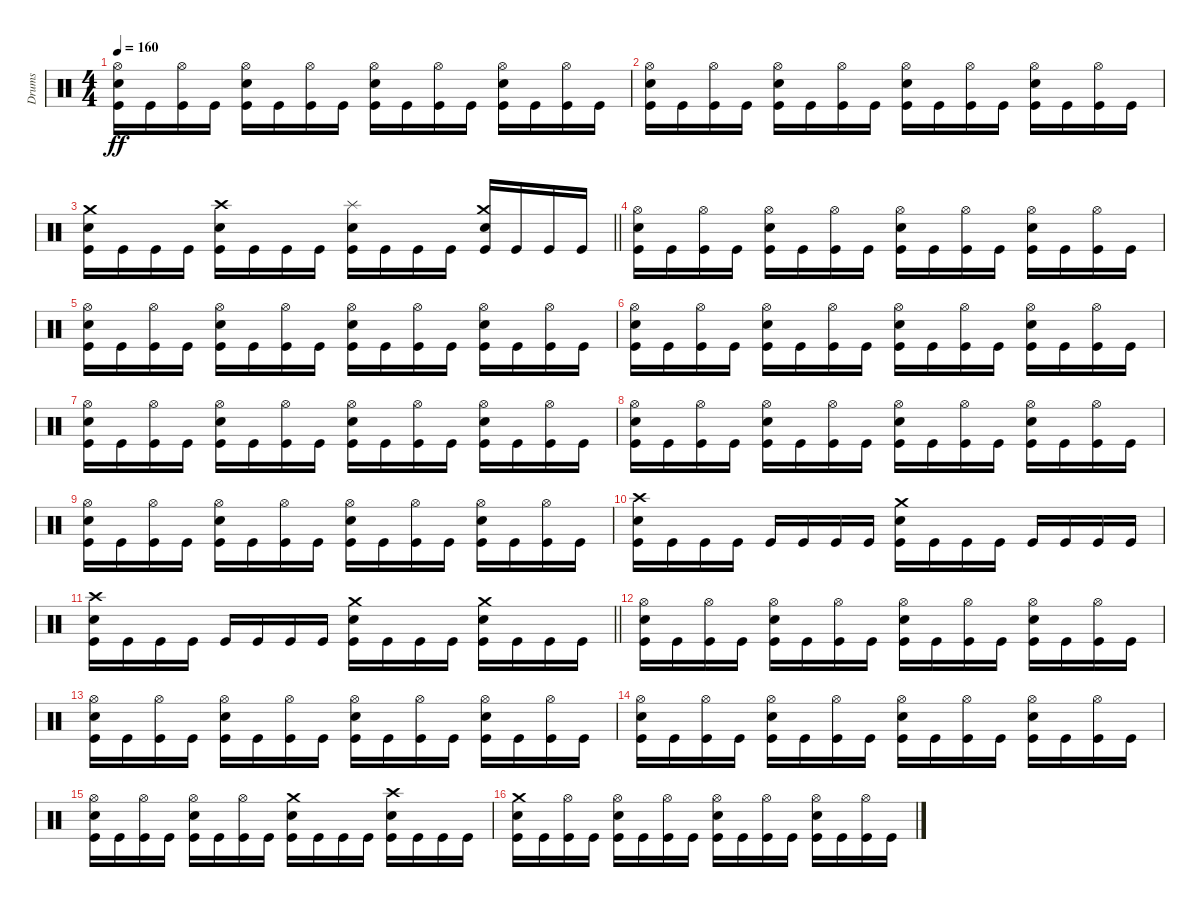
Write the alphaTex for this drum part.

\track ("Drums" "Drums") {instrument percussion bank 127}
\staff {score}
\articulation defaults
\ts (4 4)
\tempo 160
\clef neutral
\ks c
("Hi-Hat (open)" "Snare (hit) 2" "Kick (hit)").16{dy ff} "Kick (hit)".16 ("Hi-Hat (open)" "Kick (hit)").16 "Kick (hit)".16 ("Hi-Hat (open)" "Snare (hit) 2" "Kick (hit)").16 "Kick (hit)".16 ("Hi-Hat (open)" "Kick (hit)").16 "Kick (hit)".16 ("Hi-Hat (open)" "Snare (hit) 2" "Kick (hit)").16 "Kick (hit)".16 ("Hi-Hat (open)" "Kick (hit)").16 "Kick (hit)".16 ("Hi-Hat (open)" "Snare (hit) 2" "Kick (hit)").16 "Kick (hit)".16 ("Hi-Hat (open)" "Kick (hit)").16 "Kick (hit)".16 |
("Hi-Hat (open)" "Snare (hit) 2" "Kick (hit)").16 "Kick (hit)".16 ("Hi-Hat (open)" "Kick (hit)").16 "Kick (hit)".16 ("Hi-Hat (open)" "Snare (hit) 2" "Kick (hit)").16 "Kick (hit)".16 ("Hi-Hat (open)" "Kick (hit)").16 "Kick (hit)".16 ("Hi-Hat (open)" "Snare (hit) 2" "Kick (hit)").16 "Kick (hit)".16 ("Hi-Hat (open)" "Kick (hit)").16 "Kick (hit)".16 ("Hi-Hat (open)" "Snare (hit) 2" "Kick (hit)").16 "Kick (hit)".16 ("Hi-Hat (open)" "Kick (hit)").16 "Kick (hit)".16 |
\barLineRight lightlight
("Crash medium (hit)" "Snare (hit) 2" "Kick (hit)").16 "Kick (hit)".16 "Kick (hit)".16 "Kick (hit)".16 ("Crash high (hit)" "Snare (hit) 2" "Kick (hit)").16 "Kick (hit)".16 "Kick (hit)".16 "Kick (hit)".16 ("Splash (hit)" "Snare (hit) 2" "Kick (hit)").16 "Kick (hit)".16 "Kick (hit)".16 "Kick (hit)".16 ("Crash medium (hit)" "Electric Snare (hit)" "Kick (hit)").16 "Kick (hit)".16 "Kick (hit)".16 "Kick (hit)".16 |
("Hi-Hat (open)" "Snare (hit) 2" "Kick (hit)").16 "Kick (hit)".16 ("Hi-Hat (open)" "Kick (hit)").16 "Kick (hit)".16 ("Hi-Hat (open)" "Snare (hit) 2" "Kick (hit)").16 "Kick (hit)".16 ("Hi-Hat (open)" "Kick (hit)").16 "Kick (hit)".16 ("Hi-Hat (open)" "Snare (hit) 2" "Kick (hit)").16 "Kick (hit)".16 ("Hi-Hat (open)" "Kick (hit)").16 "Kick (hit)".16 ("Hi-Hat (open)" "Snare (hit) 2" "Kick (hit)").16 "Kick (hit)".16 ("Hi-Hat (open)" "Kick (hit)").16 "Kick (hit)".16 |
("Hi-Hat (open)" "Snare (hit) 2" "Kick (hit)").16 "Kick (hit)".16 ("Hi-Hat (open)" "Kick (hit)").16 "Kick (hit)".16 ("Hi-Hat (open)" "Snare (hit) 2" "Kick (hit)").16 "Kick (hit)".16 ("Hi-Hat (open)" "Kick (hit)").16 "Kick (hit)".16 ("Hi-Hat (open)" "Snare (hit) 2" "Kick (hit)").16 "Kick (hit)".16 ("Hi-Hat (open)" "Kick (hit)").16 "Kick (hit)".16 ("Hi-Hat (open)" "Snare (hit) 2" "Kick (hit)").16 "Kick (hit)".16 ("Hi-Hat (open)" "Kick (hit)").16 "Kick (hit)".16 |
("Hi-Hat (open)" "Snare (hit) 2" "Kick (hit)").16 "Kick (hit)".16 ("Hi-Hat (open)" "Kick (hit)").16 "Kick (hit)".16 ("Hi-Hat (open)" "Snare (hit) 2" "Kick (hit)").16 "Kick (hit)".16 ("Hi-Hat (open)" "Kick (hit)").16 "Kick (hit)".16 ("Hi-Hat (open)" "Snare (hit) 2" "Kick (hit)").16 "Kick (hit)".16 ("Hi-Hat (open)" "Kick (hit)").16 "Kick (hit)".16 ("Hi-Hat (open)" "Snare (hit) 2" "Kick (hit)").16 "Kick (hit)".16 ("Hi-Hat (open)" "Kick (hit)").16 "Kick (hit)".16 |
("Hi-Hat (open)" "Snare (hit) 2" "Kick (hit)").16 "Kick (hit)".16 ("Hi-Hat (open)" "Kick (hit)").16 "Kick (hit)".16 ("Hi-Hat (open)" "Snare (hit) 2" "Kick (hit)").16 "Kick (hit)".16 ("Hi-Hat (open)" "Kick (hit)").16 "Kick (hit)".16 ("Hi-Hat (open)" "Snare (hit) 2" "Kick (hit)").16 "Kick (hit)".16 ("Hi-Hat (open)" "Kick (hit)").16 "Kick (hit)".16 ("Hi-Hat (open)" "Snare (hit) 2" "Kick (hit)").16 "Kick (hit)".16 ("Hi-Hat (open)" "Kick (hit)").16 "Kick (hit)".16 |
("Hi-Hat (open)" "Snare (hit) 2" "Kick (hit)").16 "Kick (hit)".16 ("Hi-Hat (open)" "Kick (hit)").16 "Kick (hit)".16 ("Hi-Hat (open)" "Snare (hit) 2" "Kick (hit)").16 "Kick (hit)".16 ("Hi-Hat (open)" "Kick (hit)").16 "Kick (hit)".16 ("Hi-Hat (open)" "Snare (hit) 2" "Kick (hit)").16 "Kick (hit)".16 ("Hi-Hat (open)" "Kick (hit)").16 "Kick (hit)".16 ("Hi-Hat (open)" "Snare (hit) 2" "Kick (hit)").16 "Kick (hit)".16 ("Hi-Hat (open)" "Kick (hit)").16 "Kick (hit)".16 |
("Hi-Hat (open)" "Snare (hit) 2" "Kick (hit)").16 "Kick (hit)".16 ("Hi-Hat (open)" "Kick (hit)").16 "Kick (hit)".16 ("Hi-Hat (open)" "Snare (hit) 2" "Kick (hit)").16 "Kick (hit)".16 ("Hi-Hat (open)" "Kick (hit)").16 "Kick (hit)".16 ("Hi-Hat (open)" "Snare (hit) 2" "Kick (hit)").16 "Kick (hit)".16 ("Hi-Hat (open)" "Kick (hit)").16 "Kick (hit)".16 ("Hi-Hat (open)" "Snare (hit) 2" "Kick (hit)").16 "Kick (hit)".16 ("Hi-Hat (open)" "Kick (hit)").16 "Kick (hit)".16 |
("Crash high (hit)" "Snare (hit) 2" "Kick (hit)").16 "Kick (hit)".16 "Kick (hit)".16 "Kick (hit)".16 "Kick (hit)".16 "Kick (hit)".16 "Kick (hit)".16 "Kick (hit)".16 ("Crash medium (hit)" "Snare (hit) 2" "Kick (hit)").16 "Kick (hit)".16 "Kick (hit)".16 "Kick (hit)".16 "Kick (hit)".16 "Kick (hit)".16 "Kick (hit)".16 "Kick (hit)".16 |
\barLineRight lightlight
("Crash high (hit)" "Snare (hit) 2" "Kick (hit)").16 "Kick (hit)".16 "Kick (hit)".16 "Kick (hit)".16 "Kick (hit)".16 "Kick (hit)".16 "Kick (hit)".16 "Kick (hit)".16 ("Crash medium (hit)" "Snare (hit) 2" "Kick (hit)").16 "Kick (hit)".16 "Kick (hit)".16 "Kick (hit)".16 ("Crash medium (hit)" "Snare (hit) 2" "Kick (hit)").16 "Kick (hit)".16 "Kick (hit)".16 "Kick (hit)".16 |
("Hi-Hat (open)" "Snare (hit) 2" "Kick (hit)").16 "Kick (hit)".16 ("Hi-Hat (open)" "Kick (hit)").16 "Kick (hit)".16 ("Hi-Hat (open)" "Snare (hit) 2" "Kick (hit)").16 "Kick (hit)".16 ("Hi-Hat (open)" "Kick (hit)").16 "Kick (hit)".16 ("Hi-Hat (open)" "Snare (hit) 2" "Kick (hit)").16 "Kick (hit)".16 ("Hi-Hat (open)" "Kick (hit)").16 "Kick (hit)".16 ("Hi-Hat (open)" "Snare (hit) 2" "Kick (hit)").16 "Kick (hit)".16 ("Hi-Hat (open)" "Kick (hit)").16 "Kick (hit)".16 |
("Hi-Hat (open)" "Snare (hit) 2" "Kick (hit)").16 "Kick (hit)".16 ("Hi-Hat (open)" "Kick (hit)").16 "Kick (hit)".16 ("Hi-Hat (open)" "Snare (hit) 2" "Kick (hit)").16 "Kick (hit)".16 ("Hi-Hat (open)" "Kick (hit)").16 "Kick (hit)".16 ("Hi-Hat (open)" "Snare (hit) 2" "Kick (hit)").16 "Kick (hit)".16 ("Hi-Hat (open)" "Kick (hit)").16 "Kick (hit)".16 ("Hi-Hat (open)" "Snare (hit) 2" "Kick (hit)").16 "Kick (hit)".16 ("Hi-Hat (open)" "Kick (hit)").16 "Kick (hit)".16 |
("Hi-Hat (open)" "Snare (hit) 2" "Kick (hit)").16 "Kick (hit)".16 ("Hi-Hat (open)" "Kick (hit)").16 "Kick (hit)".16 ("Hi-Hat (open)" "Snare (hit) 2" "Kick (hit)").16 "Kick (hit)".16 ("Hi-Hat (open)" "Kick (hit)").16 "Kick (hit)".16 ("Hi-Hat (open)" "Snare (hit) 2" "Kick (hit)").16 "Kick (hit)".16 ("Hi-Hat (open)" "Kick (hit)").16 "Kick (hit)".16 ("Hi-Hat (open)" "Snare (hit) 2" "Kick (hit)").16 "Kick (hit)".16 ("Hi-Hat (open)" "Kick (hit)").16 "Kick (hit)".16 |
("Hi-Hat (open)" "Snare (hit) 2" "Kick (hit)").16 "Kick (hit)".16 ("Hi-Hat (open)" "Kick (hit)").16 "Kick (hit)".16 ("Hi-Hat (open)" "Snare (hit) 2" "Kick (hit)").16 "Kick (hit)".16 ("Hi-Hat (open)" "Kick (hit)").16 "Kick (hit)".16 ("Crash medium (hit)" "Snare (hit) 2" "Kick (hit)").16 "Kick (hit)".16 "Kick (hit)".16 "Kick (hit)".16 ("Crash high (hit)" "Snare (hit) 2" "Kick (hit)").16 "Kick (hit)".16 "Kick (hit)".16 "Kick (hit)".16 |
("Crash medium (hit)" "Snare (hit) 2" "Kick (hit)").16 "Kick (hit)".16 ("Hi-Hat (open)" "Kick (hit)").16 "Kick (hit)".16 ("Hi-Hat (open)" "Snare (hit) 2" "Kick (hit)").16 "Kick (hit)".16 ("Hi-Hat (open)" "Kick (hit)").16 "Kick (hit)".16 ("Hi-Hat (open)" "Snare (hit) 2" "Kick (hit)").16 "Kick (hit)".16 ("Hi-Hat (open)" "Kick (hit)").16 "Kick (hit)".16 ("Hi-Hat (open)" "Snare (hit) 2" "Kick (hit)").16 "Kick (hit)".16 ("Hi-Hat (open)" "Kick (hit)").16 "Kick (hit)".16
